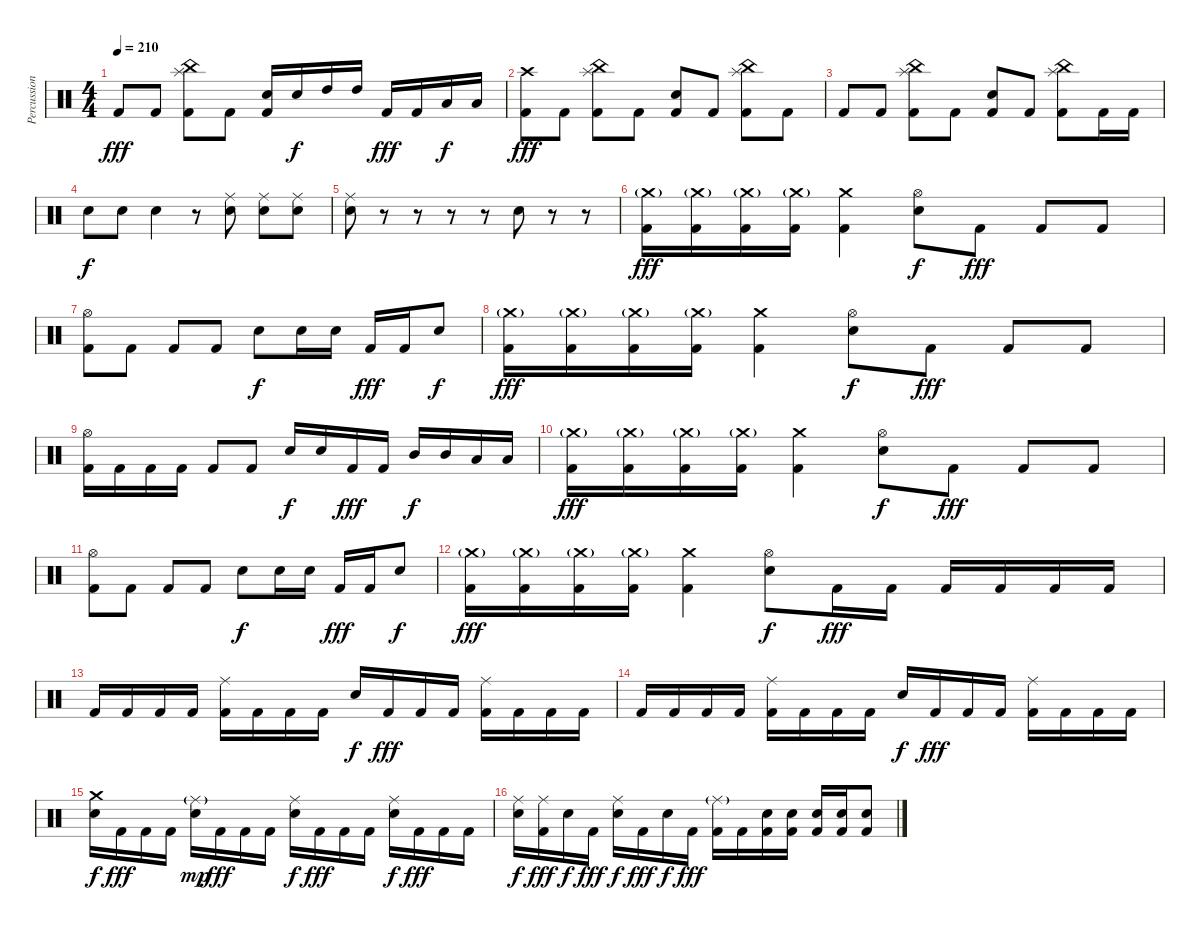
\track ("Percussions" "Percussion") {instrument percussion}
\staff {score}
\articulation defaults
\ts (4 4)
\tempo 210
\clef neutral
\ks c "Kick (hit) 2".8{dy fff} "Kick (hit) 2".8
("Splash (hit)" "China (hit)" "Kick (hit) 2").8 "Kick (hit) 2".8 ("Electric Snare (hit)" "Kick (hit) 2").16 "Electric Snare (hit)".16{dy f} "High Tom (hit)".16 "High Tom (hit)".16 "Kick (hit) 2".16{dy fff} "Kick (hit) 2".16 "Low Tom (hit)".16{dy f} "Low Tom (hit)".16 |
("Crash high (hit)" "Kick (hit) 2").8{dy fff} "Kick (hit) 2".8 ("Splash (hit)" "China (hit)" "Kick (hit) 2").8 "Kick (hit) 2".8 ("Electric Snare (hit)" "Kick (hit) 2").8 "Kick (hit) 2".8 ("Splash (hit)" "China (hit)" "Kick (hit) 2").8 "Kick (hit) 2".8 |
"Kick (hit) 2".8 "Kick (hit) 2".8 ("Splash (hit)" "China (hit)" "Kick (hit) 2").8 "Kick (hit) 2".8 ("Electric Snare (hit)" "Kick (hit) 2").8 "Kick (hit) 2".8 ("Splash (hit)" "China (hit)" "Kick (hit) 2").8 "Kick (hit) 2".16 "Kick (hit) 2".16 |
"Electric Snare (hit)".8{dy f} "Electric Snare (hit)".8 "Electric Snare (hit)".4 r.8 ("Ride (middle)" "Electric Snare (hit)").8 ("Ride (middle)" "Electric Snare (hit)").8 ("Ride (middle)" "Electric Snare (hit)").8 |
("Ride (middle)" "Electric Snare (hit)").8 r.8 r.8 r.8 r.8 "Electric Snare (hit)".8 r.8 r.8 |
("Crash medium (hit)"{g} "Kick (hit) 2").16{dy fff} ("Crash medium (hit)"{g} "Kick (hit) 2").16 ("Crash medium (hit)"{g} "Kick (hit) 2").16 ("Crash medium (hit)"{g} "Kick (hit) 2").16 ("Crash medium (hit)" "Kick (hit) 2").4 ("Hi-Hat (open)" "Electric Snare (hit)").8{dy f} "Kick (hit) 2".8{dy fff} "Kick (hit) 2".8 "Kick (hit) 2".8 |
("Hi-Hat (open)" "Kick (hit) 2").8 "Kick (hit) 2".8 "Kick (hit) 2".8 "Kick (hit) 2".8 "Electric Snare (hit)".8{dy f} "Electric Snare (hit)".16 "Electric Snare (hit)".16 "Kick (hit) 2".16{dy fff} "Kick (hit) 2".16 "Electric Snare (hit)".8{dy f} |
("Crash medium (hit)"{g} "Kick (hit) 2").16{dy fff} ("Crash medium (hit)"{g} "Kick (hit) 2").16 ("Crash medium (hit)"{g} "Kick (hit) 2").16 ("Crash medium (hit)"{g} "Kick (hit) 2").16 ("Crash medium (hit)" "Kick (hit) 2").4 ("Hi-Hat (open)" "Electric Snare (hit)").8{dy f} "Kick (hit) 2".8{dy fff} "Kick (hit) 2".8 "Kick (hit) 2".8 |
("Hi-Hat (open)" "Kick (hit) 2").16 "Kick (hit) 2".16 "Kick (hit) 2".16 "Kick (hit) 2".16 "Kick (hit) 2".8 "Kick (hit) 2".8 "Electric Snare (hit)".16{dy f} "Electric Snare (hit)".16 "Kick (hit) 2".16{dy fff} "Kick (hit) 2".16 "Mid Tom (hit)".16{dy f} "Mid Tom (hit)".16 "Low Tom (hit)".16 "Low Tom (hit)".16 |
("Crash medium (hit)"{g} "Kick (hit) 2").16{dy fff} ("Crash medium (hit)"{g} "Kick (hit) 2").16 ("Crash medium (hit)"{g} "Kick (hit) 2").16 ("Crash medium (hit)"{g} "Kick (hit) 2").16 ("Crash medium (hit)" "Kick (hit) 2").4 ("Hi-Hat (open)" "Electric Snare (hit)").8{dy f} "Kick (hit) 2".8{dy fff} "Kick (hit) 2".8 "Kick (hit) 2".8 |
("Hi-Hat (open)" "Kick (hit) 2").8 "Kick (hit) 2".8 "Kick (hit) 2".8 "Kick (hit) 2".8 "Electric Snare (hit)".8{dy f} "Electric Snare (hit)".16 "Electric Snare (hit)".16 "Kick (hit) 2".16{dy fff} "Kick (hit) 2".16 "Electric Snare (hit)".8{dy f} |
("Crash medium (hit)"{g} "Kick (hit) 2").16{dy fff} ("Crash medium (hit)"{g} "Kick (hit) 2").16 ("Crash medium (hit)"{g} "Kick (hit) 2").16 ("Crash medium (hit)"{g} "Kick (hit) 2").16 ("Crash medium (hit)" "Kick (hit) 2").4 ("Hi-Hat (open)" "Electric Snare (hit)").8{dy f} "Kick (hit) 2".16{dy fff} "Kick (hit) 2".16 "Kick (hit) 2".16 "Kick (hit) 2".16 "Kick (hit) 2".16 "Kick (hit) 2".16 |
"Kick (hit) 2".16 "Kick (hit) 2".16 "Kick (hit) 2".16 "Kick (hit) 2".16 ("Ride (middle)" "Kick (hit) 2").16 "Kick (hit) 2".16 "Kick (hit) 2".16 "Kick (hit) 2".16 "Electric Snare (hit)".16{dy f} "Kick (hit) 2".16{dy fff} "Kick (hit) 2".16 "Kick (hit) 2".16 ("Ride (middle)" "Kick (hit) 2").16 "Kick (hit) 2".16 "Kick (hit) 2".16 "Kick (hit) 2".16 |
"Kick (hit) 2".16 "Kick (hit) 2".16 "Kick (hit) 2".16 "Kick (hit) 2".16 ("Ride (middle)" "Kick (hit) 2").16 "Kick (hit) 2".16 "Kick (hit) 2".16 "Kick (hit) 2".16 "Electric Snare (hit)".16{dy f} "Kick (hit) 2".16{dy fff} "Kick (hit) 2".16 "Kick (hit) 2".16 ("Ride (middle)" "Kick (hit) 2").16 "Kick (hit) 2".16 "Kick (hit) 2".16 "Kick (hit) 2".16 |
("Crash medium (hit)" "Electric Snare (hit)").16{dy f} "Kick (hit) 2".16{dy fff} "Kick (hit) 2".16 "Kick (hit) 2".16 ("Ride (middle)"{g} "Electric Snare (hit)").16{dy mp} "Kick (hit) 2".16{dy fff} "Kick (hit) 2".16 "Kick (hit) 2".16 ("Ride (middle)" "Electric Snare (hit)").16{dy f} "Kick (hit) 2".16{dy fff} "Kick (hit) 2".16 "Kick (hit) 2".16 ("Ride (middle)" "Electric Snare (hit)").16{dy f} "Kick (hit) 2".16{dy fff} "Kick (hit) 2".16 "Kick (hit) 2".16 |
("Ride (middle)" "Electric Snare (hit)").16{dy f} ("Ride (middle)" "Kick (hit) 2").16{dy fff} "Electric Snare (hit)".16{dy f} "Kick (hit) 2".16{dy fff} ("Ride (middle)" "Electric Snare (hit)").16{dy f} "Kick (hit) 2".16{dy fff} "Electric Snare (hit)".16{dy f} "Kick (hit) 2".16{dy fff} ("Ride (middle)"{g} "Kick (hit) 2").16 "Kick (hit) 2".16 ("Electric Snare (hit)" "Kick (hit) 2").16 ("Electric Snare (hit)" "Kick (hit) 2").16 ("Electric Snare (hit)" "Kick (hit) 2").16 ("Electric Snare (hit)" "Kick (hit) 2").16 ("Electric Snare (hit)" "Kick (hit) 2").8
